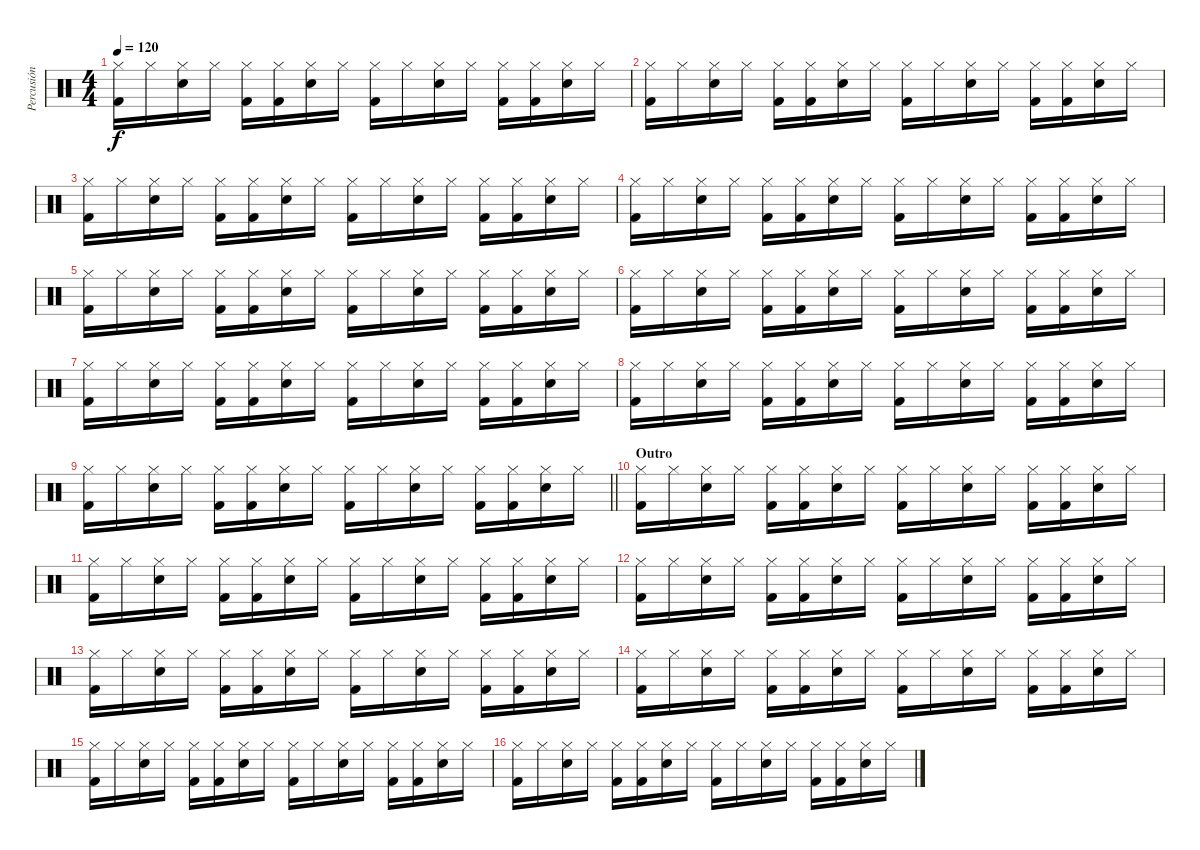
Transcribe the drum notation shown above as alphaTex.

\track ("Percusión" "Percusión") {instrument percussion}
\staff {score}
\articulation defaults
\ts (4 4)
\tempo 120
\clef neutral
\ks c
("Kick (hit) 2" "Hi-Hat (closed)").16{dy f} "Hi-Hat (closed)".16 ("Electric Snare (hit)" "Hi-Hat (closed)").16 "Hi-Hat (closed)".16 ("Kick (hit) 2" "Hi-Hat (closed)").16 ("Kick (hit) 2" "Hi-Hat (closed)").16 ("Electric Snare (hit)" "Hi-Hat (closed)").16 "Hi-Hat (closed)".16 ("Kick (hit) 2" "Hi-Hat (closed)").16 "Hi-Hat (closed)".16 ("Electric Snare (hit)" "Hi-Hat (closed)").16 "Hi-Hat (closed)".16 ("Kick (hit) 2" "Hi-Hat (closed)").16 ("Kick (hit) 2" "Hi-Hat (closed)").16 ("Electric Snare (hit)" "Hi-Hat (closed)").16 "Hi-Hat (closed)".16 |
("Kick (hit) 2" "Hi-Hat (closed)").16 "Hi-Hat (closed)".16 ("Electric Snare (hit)" "Hi-Hat (closed)").16 "Hi-Hat (closed)".16 ("Kick (hit) 2" "Hi-Hat (closed)").16 ("Kick (hit) 2" "Hi-Hat (closed)").16 ("Electric Snare (hit)" "Hi-Hat (closed)").16 "Hi-Hat (closed)".16 ("Kick (hit) 2" "Hi-Hat (closed)").16 "Hi-Hat (closed)".16 ("Electric Snare (hit)" "Hi-Hat (closed)").16 "Hi-Hat (closed)".16 ("Kick (hit) 2" "Hi-Hat (closed)").16 ("Kick (hit) 2" "Hi-Hat (closed)").16 ("Electric Snare (hit)" "Hi-Hat (closed)").16 "Hi-Hat (closed)".16 |
("Kick (hit) 2" "Hi-Hat (closed)").16 "Hi-Hat (closed)".16 ("Electric Snare (hit)" "Hi-Hat (closed)").16 "Hi-Hat (closed)".16 ("Kick (hit) 2" "Hi-Hat (closed)").16 ("Kick (hit) 2" "Hi-Hat (closed)").16 ("Electric Snare (hit)" "Hi-Hat (closed)").16 "Hi-Hat (closed)".16 ("Kick (hit) 2" "Hi-Hat (closed)").16 "Hi-Hat (closed)".16 ("Electric Snare (hit)" "Hi-Hat (closed)").16 "Hi-Hat (closed)".16 ("Kick (hit) 2" "Hi-Hat (closed)").16 ("Kick (hit) 2" "Hi-Hat (closed)").16 ("Electric Snare (hit)" "Hi-Hat (closed)").16 "Hi-Hat (closed)".16 |
("Kick (hit) 2" "Hi-Hat (closed)").16 "Hi-Hat (closed)".16 ("Electric Snare (hit)" "Hi-Hat (closed)").16 "Hi-Hat (closed)".16 ("Kick (hit) 2" "Hi-Hat (closed)").16 ("Kick (hit) 2" "Hi-Hat (closed)").16 ("Electric Snare (hit)" "Hi-Hat (closed)").16 "Hi-Hat (closed)".16 ("Kick (hit) 2" "Hi-Hat (closed)").16 "Hi-Hat (closed)".16 ("Electric Snare (hit)" "Hi-Hat (closed)").16 "Hi-Hat (closed)".16 ("Kick (hit) 2" "Hi-Hat (closed)").16 ("Kick (hit) 2" "Hi-Hat (closed)").16 ("Electric Snare (hit)" "Hi-Hat (closed)").16 "Hi-Hat (closed)".16 |
("Kick (hit) 2" "Hi-Hat (closed)").16 "Hi-Hat (closed)".16 ("Electric Snare (hit)" "Hi-Hat (closed)").16 "Hi-Hat (closed)".16 ("Kick (hit) 2" "Hi-Hat (closed)").16 ("Kick (hit) 2" "Hi-Hat (closed)").16 ("Electric Snare (hit)" "Hi-Hat (closed)").16 "Hi-Hat (closed)".16 ("Kick (hit) 2" "Hi-Hat (closed)").16 "Hi-Hat (closed)".16 ("Electric Snare (hit)" "Hi-Hat (closed)").16 "Hi-Hat (closed)".16 ("Kick (hit) 2" "Hi-Hat (closed)").16 ("Kick (hit) 2" "Hi-Hat (closed)").16 ("Electric Snare (hit)" "Hi-Hat (closed)").16 "Hi-Hat (closed)".16 |
("Kick (hit) 2" "Hi-Hat (closed)").16 "Hi-Hat (closed)".16 ("Electric Snare (hit)" "Hi-Hat (closed)").16 "Hi-Hat (closed)".16 ("Kick (hit) 2" "Hi-Hat (closed)").16 ("Kick (hit) 2" "Hi-Hat (closed)").16 ("Electric Snare (hit)" "Hi-Hat (closed)").16 "Hi-Hat (closed)".16 ("Kick (hit) 2" "Hi-Hat (closed)").16 "Hi-Hat (closed)".16 ("Electric Snare (hit)" "Hi-Hat (closed)").16 "Hi-Hat (closed)".16 ("Kick (hit) 2" "Hi-Hat (closed)").16 ("Kick (hit) 2" "Hi-Hat (closed)").16 ("Electric Snare (hit)" "Hi-Hat (closed)").16 "Hi-Hat (closed)".16 |
("Kick (hit) 2" "Hi-Hat (closed)").16 "Hi-Hat (closed)".16 ("Electric Snare (hit)" "Hi-Hat (closed)").16 "Hi-Hat (closed)".16 ("Kick (hit) 2" "Hi-Hat (closed)").16 ("Kick (hit) 2" "Hi-Hat (closed)").16 ("Electric Snare (hit)" "Hi-Hat (closed)").16 "Hi-Hat (closed)".16 ("Kick (hit) 2" "Hi-Hat (closed)").16 "Hi-Hat (closed)".16 ("Electric Snare (hit)" "Hi-Hat (closed)").16 "Hi-Hat (closed)".16 ("Kick (hit) 2" "Hi-Hat (closed)").16 ("Kick (hit) 2" "Hi-Hat (closed)").16 ("Electric Snare (hit)" "Hi-Hat (closed)").16 "Hi-Hat (closed)".16 |
("Kick (hit) 2" "Hi-Hat (closed)").16 "Hi-Hat (closed)".16 ("Electric Snare (hit)" "Hi-Hat (closed)").16 "Hi-Hat (closed)".16 ("Kick (hit) 2" "Hi-Hat (closed)").16 ("Kick (hit) 2" "Hi-Hat (closed)").16 ("Electric Snare (hit)" "Hi-Hat (closed)").16 "Hi-Hat (closed)".16 ("Kick (hit) 2" "Hi-Hat (closed)").16 "Hi-Hat (closed)".16 ("Electric Snare (hit)" "Hi-Hat (closed)").16 "Hi-Hat (closed)".16 ("Kick (hit) 2" "Hi-Hat (closed)").16 ("Kick (hit) 2" "Hi-Hat (closed)").16 ("Electric Snare (hit)" "Hi-Hat (closed)").16 "Hi-Hat (closed)".16 |
\barLineRight lightlight
("Kick (hit) 2" "Hi-Hat (closed)").16 "Hi-Hat (closed)".16 ("Electric Snare (hit)" "Hi-Hat (closed)").16 "Hi-Hat (closed)".16 ("Kick (hit) 2" "Hi-Hat (closed)").16 ("Kick (hit) 2" "Hi-Hat (closed)").16 ("Electric Snare (hit)" "Hi-Hat (closed)").16 "Hi-Hat (closed)".16 ("Kick (hit) 2" "Hi-Hat (closed)").16 "Hi-Hat (closed)".16 ("Electric Snare (hit)" "Hi-Hat (closed)").16 "Hi-Hat (closed)".16 ("Kick (hit) 2" "Hi-Hat (closed)").16 ("Kick (hit) 2" "Hi-Hat (closed)").16 ("Electric Snare (hit)" "Hi-Hat (closed)").16 "Hi-Hat (closed)".16 |
\section ("" "Outro")
("Kick (hit) 2" "Hi-Hat (closed)").16 "Hi-Hat (closed)".16 ("Electric Snare (hit)" "Hi-Hat (closed)").16 "Hi-Hat (closed)".16 ("Kick (hit) 2" "Hi-Hat (closed)").16 ("Kick (hit) 2" "Hi-Hat (closed)").16 ("Electric Snare (hit)" "Hi-Hat (closed)").16 "Hi-Hat (closed)".16 ("Kick (hit) 2" "Hi-Hat (closed)").16 "Hi-Hat (closed)".16 ("Electric Snare (hit)" "Hi-Hat (closed)").16 "Hi-Hat (closed)".16 ("Kick (hit) 2" "Hi-Hat (closed)").16 ("Kick (hit) 2" "Hi-Hat (closed)").16 ("Electric Snare (hit)" "Hi-Hat (closed)").16 "Hi-Hat (closed)".16 |
("Kick (hit) 2" "Hi-Hat (closed)").16 "Hi-Hat (closed)".16 ("Electric Snare (hit)" "Hi-Hat (closed)").16 "Hi-Hat (closed)".16 ("Kick (hit) 2" "Hi-Hat (closed)").16 ("Kick (hit) 2" "Hi-Hat (closed)").16 ("Electric Snare (hit)" "Hi-Hat (closed)").16 "Hi-Hat (closed)".16 ("Kick (hit) 2" "Hi-Hat (closed)").16 "Hi-Hat (closed)".16 ("Electric Snare (hit)" "Hi-Hat (closed)").16 "Hi-Hat (closed)".16 ("Kick (hit) 2" "Hi-Hat (closed)").16 ("Kick (hit) 2" "Hi-Hat (closed)").16 ("Electric Snare (hit)" "Hi-Hat (closed)").16 "Hi-Hat (closed)".16 |
("Kick (hit) 2" "Hi-Hat (closed)").16 "Hi-Hat (closed)".16 ("Electric Snare (hit)" "Hi-Hat (closed)").16 "Hi-Hat (closed)".16 ("Kick (hit) 2" "Hi-Hat (closed)").16 ("Kick (hit) 2" "Hi-Hat (closed)").16 ("Electric Snare (hit)" "Hi-Hat (closed)").16 "Hi-Hat (closed)".16 ("Kick (hit) 2" "Hi-Hat (closed)").16 "Hi-Hat (closed)".16 ("Electric Snare (hit)" "Hi-Hat (closed)").16 "Hi-Hat (closed)".16 ("Kick (hit) 2" "Hi-Hat (closed)").16 ("Kick (hit) 2" "Hi-Hat (closed)").16 ("Electric Snare (hit)" "Hi-Hat (closed)").16 "Hi-Hat (closed)".16 |
("Kick (hit) 2" "Hi-Hat (closed)").16 "Hi-Hat (closed)".16 ("Electric Snare (hit)" "Hi-Hat (closed)").16 "Hi-Hat (closed)".16 ("Kick (hit) 2" "Hi-Hat (closed)").16 ("Kick (hit) 2" "Hi-Hat (closed)").16 ("Electric Snare (hit)" "Hi-Hat (closed)").16 "Hi-Hat (closed)".16 ("Kick (hit) 2" "Hi-Hat (closed)").16 "Hi-Hat (closed)".16 ("Electric Snare (hit)" "Hi-Hat (closed)").16 "Hi-Hat (closed)".16 ("Kick (hit) 2" "Hi-Hat (closed)").16 ("Kick (hit) 2" "Hi-Hat (closed)").16 ("Electric Snare (hit)" "Hi-Hat (closed)").16 "Hi-Hat (closed)".16 |
("Kick (hit) 2" "Hi-Hat (closed)").16 "Hi-Hat (closed)".16 ("Electric Snare (hit)" "Hi-Hat (closed)").16 "Hi-Hat (closed)".16 ("Kick (hit) 2" "Hi-Hat (closed)").16 ("Kick (hit) 2" "Hi-Hat (closed)").16 ("Electric Snare (hit)" "Hi-Hat (closed)").16 "Hi-Hat (closed)".16 ("Kick (hit) 2" "Hi-Hat (closed)").16 "Hi-Hat (closed)".16 ("Electric Snare (hit)" "Hi-Hat (closed)").16 "Hi-Hat (closed)".16 ("Kick (hit) 2" "Hi-Hat (closed)").16 ("Kick (hit) 2" "Hi-Hat (closed)").16 ("Electric Snare (hit)" "Hi-Hat (closed)").16 "Hi-Hat (closed)".16 |
("Kick (hit) 2" "Hi-Hat (closed)").16 "Hi-Hat (closed)".16 ("Electric Snare (hit)" "Hi-Hat (closed)").16 "Hi-Hat (closed)".16 ("Kick (hit) 2" "Hi-Hat (closed)").16 ("Kick (hit) 2" "Hi-Hat (closed)").16 ("Electric Snare (hit)" "Hi-Hat (closed)").16 "Hi-Hat (closed)".16 ("Kick (hit) 2" "Hi-Hat (closed)").16 "Hi-Hat (closed)".16 ("Electric Snare (hit)" "Hi-Hat (closed)").16 "Hi-Hat (closed)".16 ("Kick (hit) 2" "Hi-Hat (closed)").16 ("Kick (hit) 2" "Hi-Hat (closed)").16 ("Electric Snare (hit)" "Hi-Hat (closed)").16 "Hi-Hat (closed)".16 |
("Kick (hit) 2" "Hi-Hat (closed)").16 "Hi-Hat (closed)".16 ("Electric Snare (hit)" "Hi-Hat (closed)").16 "Hi-Hat (closed)".16 ("Kick (hit) 2" "Hi-Hat (closed)").16 ("Kick (hit) 2" "Hi-Hat (closed)").16 ("Electric Snare (hit)" "Hi-Hat (closed)").16 "Hi-Hat (closed)".16 ("Kick (hit) 2" "Hi-Hat (closed)").16 "Hi-Hat (closed)".16 ("Electric Snare (hit)" "Hi-Hat (closed)").16 "Hi-Hat (closed)".16 ("Kick (hit) 2" "Hi-Hat (closed)").16 ("Kick (hit) 2" "Hi-Hat (closed)").16 ("Electric Snare (hit)" "Hi-Hat (closed)").16 "Hi-Hat (closed)".16
